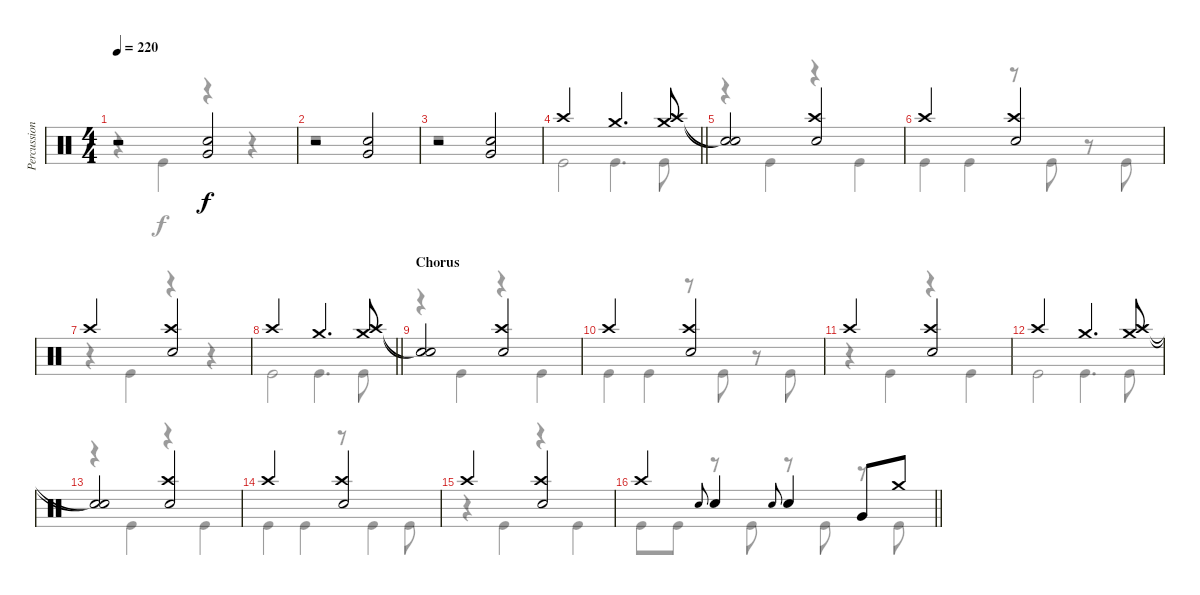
\track ("Percussion" "Percussion") {instrument percussion}
\staff {score}
\articulation defaults
\voice
\ts (4 4)
\tempo 220
\clef neutral
\ks c
r.2{dy f} ("Very Low Tom (hit)" "Electric Snare (hit)").2 |
r.2 ("Very Low Tom (hit)" "Electric Snare (hit)").2 |
r.2 ("Very Low Tom (hit)" "Electric Snare (hit)").2 |
\barLineRight lightlight "Crash high (hit)".2 "Crash medium (hit)".4{d}
("Crash medium (hit)" "Crash high (hit)").8 |
\section ("" "")
("Snare (hit)"{t} "Snare (hit)"{t}).2 ("Crash high (hit)" "Electric Snare (hit)").2 |
"Crash high (hit)".2 ("Crash high (hit)" "Electric Snare (hit)").2 |
"Crash high (hit)".2 ("Crash high (hit)" "Electric Snare (hit)").2 |
\barLineRight lightlight "Crash high (hit)".2 "Crash medium (hit)".4{d}
("Crash medium (hit)" "Crash high (hit)").8 |
\section ("" "Chorus")
("Snare (hit)"{t} "Snare (hit)"{t}).2 ("Crash high (hit)" "Electric Snare (hit)").2 |
"Crash high (hit)".2 ("Crash high (hit)" "Electric Snare (hit)").2 |
"Crash high (hit)".2 ("Crash high (hit)" "Electric Snare (hit)").2 |
"Crash high (hit)".2 "Crash medium (hit)".4{d} ("Crash medium (hit)" "Crash high (hit)").8 |
("Snare (hit)"{t} "Snare (hit)"{t}).2 ("Crash high (hit)" "Electric Snare (hit)").2 |
"Crash high (hit)".2 ("Crash high (hit)" "Electric Snare (hit)").2 |
"Crash high (hit)".2 ("Crash high (hit)" "Electric Snare (hit)").2 |
\barLineRight lightlight "Crash high (hit)".4 "Electric Snare (hit)".8{gr onbeat} "Electric Snare (hit)".4 "Electric Snare (hit)".8{gr onbeat} "Electric Snare (hit)".4 "Very Low Tom (hit)".8 "Crash medium (hit)".8
\voice
\clef neutral
\ottava regular
\simile none
\ks c
r.4{dy f} "Kick (hit)".4 r.4 r.4 |
r.1 |
r.1 |
\barLineRight lightlight "Kick (hit)".2 "Kick (hit)".4{d} "Kick (hit)".8
|
r.4 "Kick (hit)".4 r.4 "Kick (hit)".4 |
"Kick (hit)".4 "Kick (hit)".4 r.8 "Kick (hit)".8 r.8 "Kick (hit)".8 |
r.4 "Kick (hit)".4 r.4 r.4 |
\barLineRight lightlight "Kick (hit)".2 "Kick (hit)".4{d} "Kick (hit)".8
|
r.4 "Kick (hit)".4 r.4 "Kick (hit)".4 |
"Kick (hit)".4 "Kick (hit)".4 r.8 "Kick (hit)".8 r.8 "Kick (hit)".8 |
r.4 "Kick (hit)".4 r.4 "Kick (hit)".4 |
"Kick (hit)".2 "Kick (hit)".4{d} "Kick (hit)".8 |
r.4 "Kick (hit)".4 r.4 "Kick (hit)".4 |
"Kick (hit)".4 "Kick (hit)".4 r.8 "Kick (hit)".4 "Kick (hit)".8 |
r.4 "Kick (hit)".4 r.4 "Kick (hit)".4 |
\barLineRight lightlight "Kick (hit)".8 "Kick (hit)".8
r.8 "Kick (hit)".8 r.8 "Kick (hit)".8 r.8 "Kick (hit)".8
